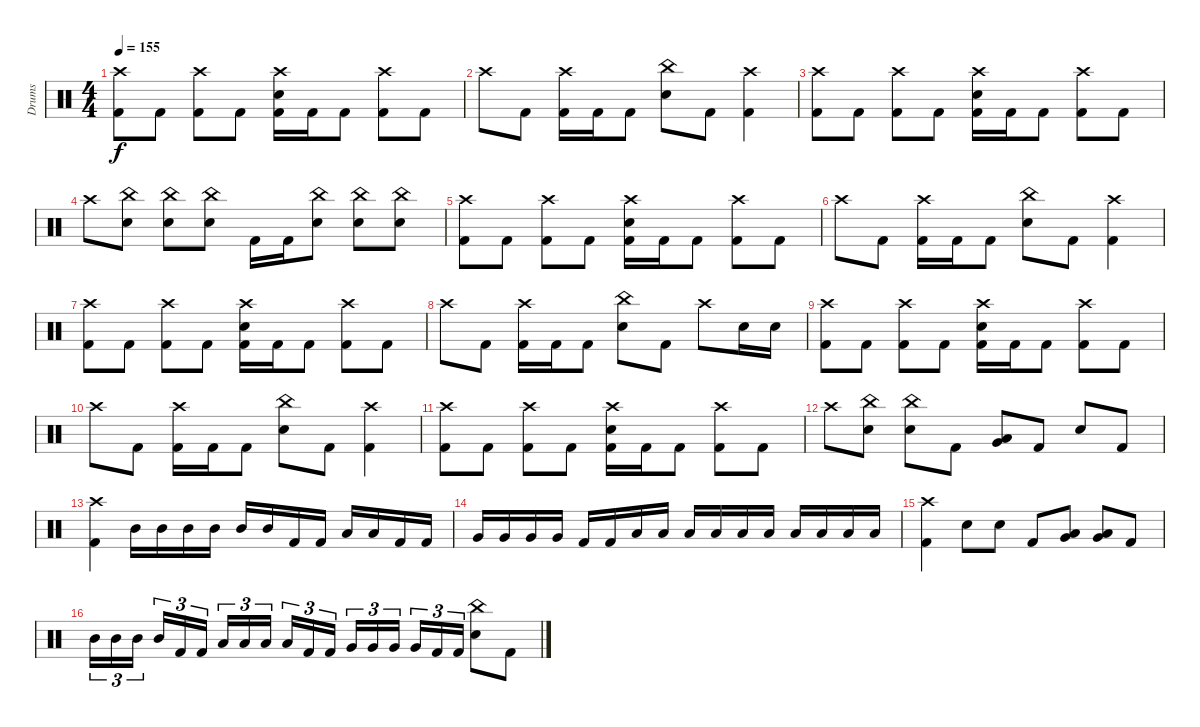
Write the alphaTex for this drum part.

\track ("Drums" "Drums") {instrument percussion}
\staff {score}
\articulation defaults
\ts (4 4)
\tempo 155
\clef neutral
\ks c
("Crash high (hit)" "Kick (hit) 2").8{dy f} "Kick (hit) 2".8 ("Crash high (hit)" "Kick (hit) 2").8 "Kick (hit) 2".8 ("Crash high (hit)" "Electric Snare (hit)" "Kick (hit) 2").16 "Kick (hit) 2".16 "Kick (hit) 2".8 ("Crash high (hit)" "Kick (hit) 2").8 "Kick (hit) 2".8 |
"Crash high (hit)".8 "Kick (hit) 2".8 ("Crash high (hit)" "Kick (hit) 2").16 "Kick (hit) 2".16 "Kick (hit) 2".8 ("China (hit)" "Electric Snare (hit)").8 "Kick (hit) 2".8 ("Crash high (hit)" "Kick (hit) 2").4 |
("Crash high (hit)" "Kick (hit) 2").8 "Kick (hit) 2".8 ("Crash high (hit)" "Kick (hit) 2").8 "Kick (hit) 2".8 ("Crash high (hit)" "Electric Snare (hit)" "Kick (hit) 2").16 "Kick (hit) 2".16 "Kick (hit) 2".8 ("Crash high (hit)" "Kick (hit) 2").8 "Kick (hit) 2".8 |
"Crash high (hit)".8 ("China (hit)" "Electric Snare (hit)").8 ("China (hit)" "Electric Snare (hit)").8 ("China (hit)" "Electric Snare (hit)").8 "Kick (hit) 2".16 "Kick (hit) 2".16 ("China (hit)" "Electric Snare (hit)").8 ("China (hit)" "Electric Snare (hit)").8 ("China (hit)" "Electric Snare (hit)").8 |
("Crash high (hit)" "Kick (hit) 2").8 "Kick (hit) 2".8 ("Crash high (hit)" "Kick (hit) 2").8 "Kick (hit) 2".8 ("Crash high (hit)" "Electric Snare (hit)" "Kick (hit) 2").16 "Kick (hit) 2".16 "Kick (hit) 2".8 ("Crash high (hit)" "Kick (hit) 2").8 "Kick (hit) 2".8 |
"Crash high (hit)".8 "Kick (hit) 2".8 ("Crash high (hit)" "Kick (hit) 2").16 "Kick (hit) 2".16 "Kick (hit) 2".8 ("China (hit)" "Electric Snare (hit)").8 "Kick (hit) 2".8 ("Crash high (hit)" "Kick (hit) 2").4 |
("Crash high (hit)" "Kick (hit) 2").8 "Kick (hit) 2".8 ("Crash high (hit)" "Kick (hit) 2").8 "Kick (hit) 2".8 ("Crash high (hit)" "Electric Snare (hit)" "Kick (hit) 2").16 "Kick (hit) 2".16 "Kick (hit) 2".8 ("Crash high (hit)" "Kick (hit) 2").8 "Kick (hit) 2".8 |
"Crash high (hit)".8 "Kick (hit) 2".8 ("Crash high (hit)" "Kick (hit) 2").16 "Kick (hit) 2".16 "Kick (hit) 2".8 ("China (hit)" "Electric Snare (hit)").8 "Kick (hit) 2".8 "Crash high (hit)".8 "Electric Snare (hit)".16 "Electric Snare (hit)".16 |
("Crash high (hit)" "Kick (hit) 2").8 "Kick (hit) 2".8 ("Crash high (hit)" "Kick (hit) 2").8 "Kick (hit) 2".8 ("Crash high (hit)" "Electric Snare (hit)" "Kick (hit) 2").16 "Kick (hit) 2".16 "Kick (hit) 2".8 ("Crash high (hit)" "Kick (hit) 2").8 "Kick (hit) 2".8 |
"Crash high (hit)".8 "Kick (hit) 2".8 ("Crash high (hit)" "Kick (hit) 2").16 "Kick (hit) 2".16 "Kick (hit) 2".8 ("China (hit)" "Electric Snare (hit)").8 "Kick (hit) 2".8 ("Crash high (hit)" "Kick (hit) 2").4 |
("Crash high (hit)" "Kick (hit) 2").8 "Kick (hit) 2".8 ("Crash high (hit)" "Kick (hit) 2").8 "Kick (hit) 2".8 ("Crash high (hit)" "Electric Snare (hit)" "Kick (hit) 2").16 "Kick (hit) 2".16 "Kick (hit) 2".8 ("Crash high (hit)" "Kick (hit) 2").8 "Kick (hit) 2".8 |
"Crash high (hit)".8 ("China (hit)" "Electric Snare (hit)").8 ("China (hit)" "Electric Snare (hit)").8 "Kick (hit) 2".8 ("Low Tom (hit)" "Very Low Tom (hit)").8 "Kick (hit) 2".8 "Electric Snare (hit)".8 "Kick (hit) 2".8 |
("Crash high (hit)" "Kick (hit) 2").4 "Mid Tom (hit)".16 "Mid Tom (hit)".16 "Mid Tom (hit)".16 "Mid Tom (hit)".16 "Mid Tom (hit)".16 "Mid Tom (hit)".16 "Kick (hit) 2".16 "Kick (hit) 2".16 "Low Tom (hit)".16 "Low Tom (hit)".16 "Kick (hit) 2".16 "Kick (hit) 2".16 |
"Very Low Tom (hit)".16 "Very Low Tom (hit)".16 "Very Low Tom (hit)".16 "Very Low Tom (hit)".16 "Kick (hit) 2".16 "Kick (hit) 2".16 "Low Floor Tom (hit)".16 "Low Floor Tom (hit)".16 "Low Floor Tom (hit)".16 "Low Floor Tom (hit)".16 "Low Floor Tom (hit)".16 "Low Floor Tom (hit)".16 "Low Floor Tom (hit)".16 "Low Floor Tom (hit)".16 "Low Floor Tom (hit)".16 "Low Floor Tom (hit)".16 |
("Crash high (hit)" "Kick (hit) 2").4 "Electric Snare (hit)".8 "Electric Snare (hit)".8 "Kick (hit) 2".8 ("Low Tom (hit)" "Very Low Tom (hit)").8 ("Low Tom (hit)" "Very Low Tom (hit)").8 "Kick (hit) 2".8 |
"Mid Tom (hit)".16{tu (3 2)} "Mid Tom (hit)".16{tu (3 2)} "Mid Tom (hit)".16{tu (3 2) beam splitsecondary} "Mid Tom (hit)".16{tu (3 2)} "Kick (hit) 2".16{tu (3 2)} "Kick (hit) 2".16{tu (3 2)} "Low Tom (hit)".16{tu (3 2)} "Low Tom (hit)".16{tu (3 2)} "Low Tom (hit)".16{tu (3 2) beam splitsecondary} "Low Tom (hit)".16{tu (3 2)} "Kick (hit) 2".16{tu (3 2)} "Kick (hit) 2".16{tu (3 2)} "Very Low Tom (hit)".16{tu (3 2)} "Very Low Tom (hit)".16{tu (3 2)} "Very Low Tom (hit)".16{tu (3 2) beam splitsecondary} "Very Low Tom (hit)".16{tu (3 2)} "Kick (hit) 2".16{tu (3 2)} "Kick (hit) 2".16{tu (3 2)} ("China (hit)" "Electric Snare (hit)").8 "Kick (hit) 2".8
